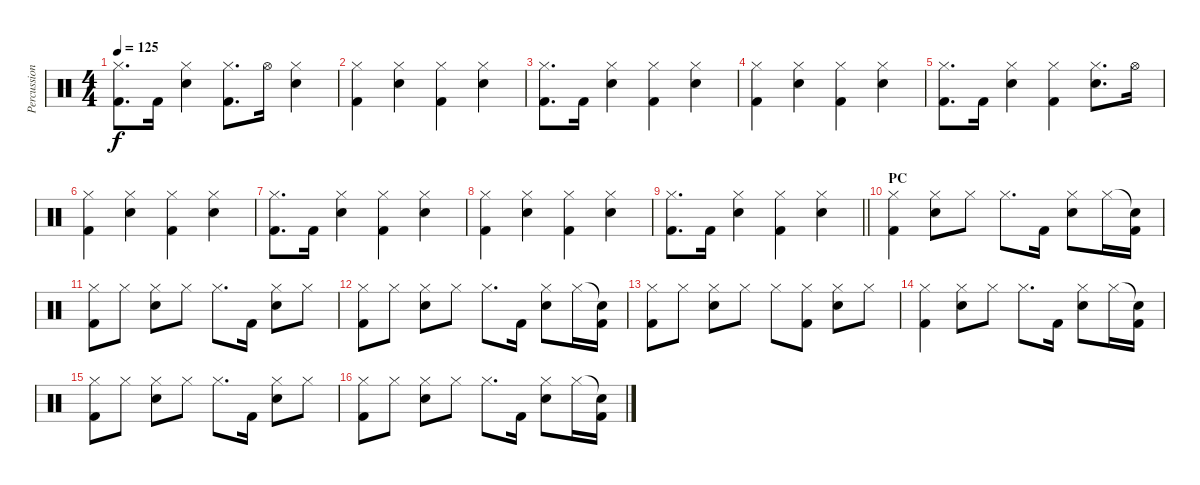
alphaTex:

\track ("Percussion" "Percussion") {instrument percussion}
\staff {score}
\articulation defaults
\ts (4 4)
\tempo 125
\clef neutral
\ks c
("Hi-Hat (closed)" "Kick (hit) 2").8{d dy f} "Kick (hit) 2".16 ("Hi-Hat (closed)" "Electric Snare (hit)").4 ("Hi-Hat (closed)" "Kick (hit) 2").8{d} "Hi-Hat (open)".16 ("Hi-Hat (closed)" "Electric Snare (hit)").4 |
("Hi-Hat (closed)" "Kick (hit) 2").4 ("Hi-Hat (closed)" "Electric Snare (hit)").4 ("Hi-Hat (closed)" "Kick (hit) 2").4 ("Hi-Hat (closed)" "Electric Snare (hit)").4 |
("Hi-Hat (closed)" "Kick (hit) 2").8{d} "Kick (hit) 2".16 ("Hi-Hat (closed)" "Electric Snare (hit)").4 ("Hi-Hat (closed)" "Kick (hit) 2").4 ("Hi-Hat (closed)" "Electric Snare (hit)").4 |
("Hi-Hat (closed)" "Kick (hit) 2").4 ("Hi-Hat (closed)" "Electric Snare (hit)").4 ("Hi-Hat (closed)" "Kick (hit) 2").4 ("Hi-Hat (closed)" "Electric Snare (hit)").4 |
("Hi-Hat (closed)" "Kick (hit) 2").8{d} "Kick (hit) 2".16 ("Hi-Hat (closed)" "Electric Snare (hit)").4 ("Hi-Hat (closed)" "Kick (hit) 2").4 ("Hi-Hat (closed)" "Electric Snare (hit)").8{d} "Hi-Hat (open)".16 |
("Hi-Hat (closed)" "Kick (hit) 2").4 ("Hi-Hat (closed)" "Electric Snare (hit)").4 ("Hi-Hat (closed)" "Kick (hit) 2").4 ("Hi-Hat (closed)" "Electric Snare (hit)").4 |
("Hi-Hat (closed)" "Kick (hit) 2").8{d} "Kick (hit) 2".16 ("Hi-Hat (closed)" "Electric Snare (hit)").4 ("Hi-Hat (closed)" "Kick (hit) 2").4 ("Hi-Hat (closed)" "Electric Snare (hit)").4 |
("Hi-Hat (closed)" "Kick (hit) 2").4 ("Hi-Hat (closed)" "Electric Snare (hit)").4 ("Hi-Hat (closed)" "Kick (hit) 2").4 ("Hi-Hat (closed)" "Electric Snare (hit)").4 |
\barLineRight lightlight
("Hi-Hat (closed)" "Kick (hit) 2").8{d} "Kick (hit) 2".16 ("Hi-Hat (closed)" "Electric Snare (hit)").4 ("Hi-Hat (closed)" "Kick (hit) 2").4 ("Hi-Hat (closed)" "Electric Snare (hit)").4 |
\section ("" "PC")
("Hi-Hat (closed)" "Kick (hit) 2").4 ("Hi-Hat (closed)" "Electric Snare (hit)").8 "Hi-Hat (closed)".8 "Hi-Hat (closed)".8{d} "Kick (hit) 2".16 ("Hi-Hat (closed)" "Electric Snare (hit)").8 "Hi-Hat (closed)".16 ("Snare (hit)"{t} "Kick (hit) 2").16 |
("Hi-Hat (closed)" "Kick (hit) 2").8 "Hi-Hat (closed)".8 ("Hi-Hat (closed)" "Electric Snare (hit)").8 "Hi-Hat (closed)".8 "Hi-Hat (closed)".8{d} "Kick (hit) 2".16 ("Hi-Hat (closed)" "Electric Snare (hit)").8 "Hi-Hat (closed)".8 |
("Hi-Hat (closed)" "Kick (hit) 2").8 "Hi-Hat (closed)".8 ("Hi-Hat (closed)" "Electric Snare (hit)").8 "Hi-Hat (closed)".8 "Hi-Hat (closed)".8{d} "Kick (hit) 2".16 ("Hi-Hat (closed)" "Electric Snare (hit)").8 "Hi-Hat (closed)".16 ("Snare (hit)"{t} "Kick (hit) 2").16 |
("Hi-Hat (closed)" "Kick (hit) 2").8 "Hi-Hat (closed)".8 ("Hi-Hat (closed)" "Electric Snare (hit)").8 "Hi-Hat (closed)".8 "Hi-Hat (closed)".8 ("Hi-Hat (closed)" "Kick (hit) 2").8 ("Hi-Hat (closed)" "Electric Snare (hit)").8 "Hi-Hat (closed)".8 |
("Hi-Hat (closed)" "Kick (hit) 2").4 ("Hi-Hat (closed)" "Electric Snare (hit)").8 "Hi-Hat (closed)".8 "Hi-Hat (closed)".8{d} "Kick (hit) 2".16 ("Hi-Hat (closed)" "Electric Snare (hit)").8 "Hi-Hat (closed)".16 ("Snare (hit)"{t} "Kick (hit) 2").16 |
("Hi-Hat (closed)" "Kick (hit) 2").8 "Hi-Hat (closed)".8 ("Hi-Hat (closed)" "Electric Snare (hit)").8 "Hi-Hat (closed)".8 "Hi-Hat (closed)".8{d} "Kick (hit) 2".16 ("Hi-Hat (closed)" "Electric Snare (hit)").8 "Hi-Hat (closed)".8 |
("Hi-Hat (closed)" "Kick (hit) 2").8 "Hi-Hat (closed)".8 ("Hi-Hat (closed)" "Electric Snare (hit)").8 "Hi-Hat (closed)".8 "Hi-Hat (closed)".8{d} "Kick (hit) 2".16 ("Hi-Hat (closed)" "Electric Snare (hit)").8 "Hi-Hat (closed)".16 ("Snare (hit)"{t} "Kick (hit) 2").16
